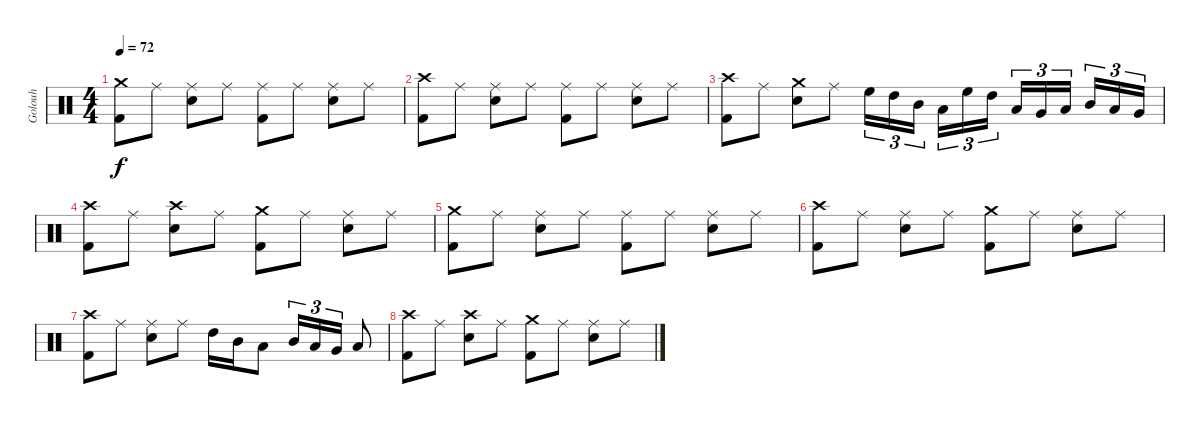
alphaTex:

\track ("Golouh" "Golouh") {instrument percussion}
\staff {score}
\articulation defaults
\ts (4 4)
\tempo 72
\clef neutral
\ks c
("Crash medium (hit)" "Kick (hit) 2").8{dy f} "Ride (middle)".8 ("Ride (middle)" "Snare (hit) 2").8 "Ride (middle)".8 ("Ride (middle)" "Kick (hit) 2").8 "Ride (middle)".8 ("Ride (middle)" "Snare (hit) 2").8 "Ride (middle)".8 |
("Crash high (hit)" "Kick (hit) 2").8 "Ride (middle)".8 ("Ride (middle)" "Snare (hit) 2").8 "Ride (middle)".8 ("Ride (middle)" "Kick (hit) 2").8 "Ride (middle)".8 ("Ride (middle)" "Snare (hit) 2").8 "Ride (middle)".8 |
("Crash high (hit)" "Kick (hit) 2").8 "Ride (middle)".8 ("Crash medium (hit)" "Snare (hit) 2").8 "Ride (middle)".8 "High Floor Tom (hit)".16{tu (3 2)} "High Tom (hit)".16{tu (3 2)} "Mid Tom (hit)".16{tu (3 2)} "Low Tom (hit)".16{tu (3 2)} "High Floor Tom (hit)".16{tu (3 2)} "High Tom (hit)".16{tu (3 2)} "Low Tom (hit)".16{tu (3 2)} "Very Low Tom (hit)".16{tu (3 2)} "Low Floor Tom (hit)".16{tu (3 2)} "Mid Tom (hit)".16{tu (3 2)} "Low Tom (hit)".16{tu (3 2)} "Very Low Tom (hit)".16{tu (3 2)} |
("Crash high (hit)" "Kick (hit) 2").8 "Ride (middle)".8 ("Crash high (hit)" "Snare (hit) 2").8 "Ride (middle)".8 ("Crash medium (hit)" "Kick (hit) 2").8 "Ride (middle)".8 ("Ride (middle)" "Snare (hit) 2").8 "Ride (middle)".8 |
("Crash medium (hit)" "Kick (hit) 2").8 "Ride (middle)".8 ("Ride (middle)" "Snare (hit) 2").8 "Ride (middle)".8 ("Ride (middle)" "Kick (hit) 2").8 "Ride (middle)".8 ("Ride (middle)" "Snare (hit) 2").8 "Ride (middle)".8 |
("Crash high (hit)" "Kick (hit) 2").8 "Ride (middle)".8 ("Ride (middle)" "Snare (hit) 2").8 "Ride (middle)".8 ("Crash medium (hit)" "Kick (hit) 2").8 "Ride (middle)".8 ("Ride (middle)" "Snare (hit) 2").8 "Ride (middle)".8 |
("Crash high (hit)" "Kick (hit) 2").8{volume 0} "Ride (middle)".8 ("Ride (middle)" "Snare (hit) 2").8 "Ride (middle)".8 "High Tom (hit)".16 "Mid Tom (hit)".16 "Low Tom (hit)".8 "Mid Tom (hit)".16{tu (3 2)} "Low Tom (hit)".16{tu (3 2)} "Very Low Tom (hit)".16{tu (3 2)} "Low Floor Tom (hit)".8 |
("Crash high (hit)" "Kick (hit) 2").8 "Ride (middle)".8 ("Crash high (hit)" "Snare (hit) 2").8 "Ride (middle)".8 ("Crash medium (hit)" "Kick (hit) 2").8 "Ride (middle)".8 ("Ride (middle)" "Snare (hit) 2").8 "Ride (middle)".8
